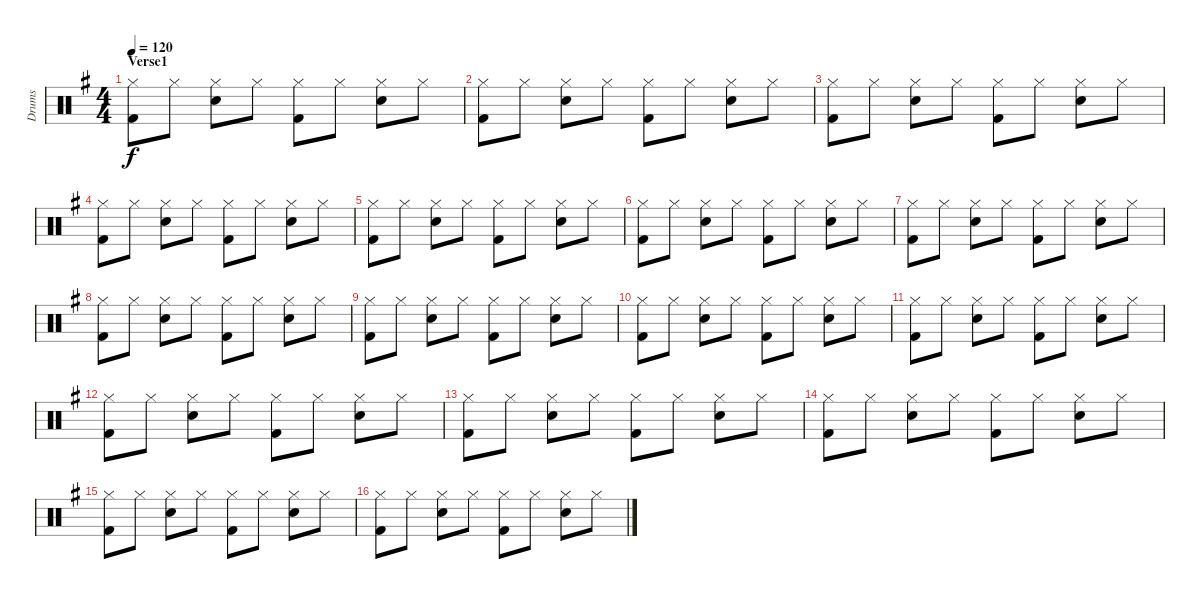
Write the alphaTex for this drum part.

\track ("Drums" "Drums") {instrument percussion}
\staff {score}
\articulation defaults
\ts (4 4)
\section ("" "Verse1")
\tempo 120
\clef neutral
\ks g
("Hi-Hat (closed)" "Kick (hit) 2").8{dy f} "Hi-Hat (closed)".8 ("Hi-Hat (closed)" "Electric Snare (hit)").8 "Hi-Hat (closed)".8 ("Hi-Hat (closed)" "Kick (hit) 2").8 "Hi-Hat (closed)".8 ("Hi-Hat (closed)" "Electric Snare (hit)").8 "Hi-Hat (closed)".8 |
("Hi-Hat (closed)" "Kick (hit) 2").8 "Hi-Hat (closed)".8 ("Hi-Hat (closed)" "Electric Snare (hit)").8 "Hi-Hat (closed)".8 ("Hi-Hat (closed)" "Kick (hit) 2").8 "Hi-Hat (closed)".8 ("Hi-Hat (closed)" "Electric Snare (hit)").8 "Hi-Hat (closed)".8 |
("Hi-Hat (closed)" "Kick (hit) 2").8 "Hi-Hat (closed)".8 ("Hi-Hat (closed)" "Electric Snare (hit)").8 "Hi-Hat (closed)".8 ("Hi-Hat (closed)" "Kick (hit) 2").8 "Hi-Hat (closed)".8 ("Hi-Hat (closed)" "Electric Snare (hit)").8 "Hi-Hat (closed)".8 |
("Hi-Hat (closed)" "Kick (hit) 2").8 "Hi-Hat (closed)".8 ("Hi-Hat (closed)" "Electric Snare (hit)").8 "Hi-Hat (closed)".8 ("Hi-Hat (closed)" "Kick (hit) 2").8 "Hi-Hat (closed)".8 ("Hi-Hat (closed)" "Electric Snare (hit)").8 "Hi-Hat (closed)".8 |
("Hi-Hat (closed)" "Kick (hit) 2").8 "Hi-Hat (closed)".8 ("Hi-Hat (closed)" "Electric Snare (hit)").8 "Hi-Hat (closed)".8 ("Hi-Hat (closed)" "Kick (hit) 2").8 "Hi-Hat (closed)".8 ("Hi-Hat (closed)" "Electric Snare (hit)").8 "Hi-Hat (closed)".8 |
("Hi-Hat (closed)" "Kick (hit) 2").8 "Hi-Hat (closed)".8 ("Hi-Hat (closed)" "Electric Snare (hit)").8 "Hi-Hat (closed)".8 ("Hi-Hat (closed)" "Kick (hit) 2").8 "Hi-Hat (closed)".8 ("Hi-Hat (closed)" "Electric Snare (hit)").8 "Hi-Hat (closed)".8 |
("Hi-Hat (closed)" "Kick (hit) 2").8 "Hi-Hat (closed)".8 ("Hi-Hat (closed)" "Electric Snare (hit)").8 "Hi-Hat (closed)".8 ("Hi-Hat (closed)" "Kick (hit) 2").8 "Hi-Hat (closed)".8 ("Hi-Hat (closed)" "Electric Snare (hit)").8 "Hi-Hat (closed)".8 |
("Hi-Hat (closed)" "Kick (hit) 2").8 "Hi-Hat (closed)".8 ("Hi-Hat (closed)" "Electric Snare (hit)").8 "Hi-Hat (closed)".8 ("Hi-Hat (closed)" "Kick (hit) 2").8 "Hi-Hat (closed)".8 ("Hi-Hat (closed)" "Electric Snare (hit)").8 "Hi-Hat (closed)".8 |
("Hi-Hat (closed)" "Kick (hit) 2").8 "Hi-Hat (closed)".8 ("Hi-Hat (closed)" "Electric Snare (hit)").8 "Hi-Hat (closed)".8 ("Hi-Hat (closed)" "Kick (hit) 2").8 "Hi-Hat (closed)".8 ("Hi-Hat (closed)" "Electric Snare (hit)").8 "Hi-Hat (closed)".8 |
("Hi-Hat (closed)" "Kick (hit) 2").8 "Hi-Hat (closed)".8 ("Hi-Hat (closed)" "Electric Snare (hit)").8 "Hi-Hat (closed)".8 ("Hi-Hat (closed)" "Kick (hit) 2").8 "Hi-Hat (closed)".8 ("Hi-Hat (closed)" "Electric Snare (hit)").8 "Hi-Hat (closed)".8 |
("Hi-Hat (closed)" "Kick (hit) 2").8 "Hi-Hat (closed)".8 ("Hi-Hat (closed)" "Electric Snare (hit)").8 "Hi-Hat (closed)".8 ("Hi-Hat (closed)" "Kick (hit) 2").8 "Hi-Hat (closed)".8 ("Hi-Hat (closed)" "Electric Snare (hit)").8 "Hi-Hat (closed)".8 |
("Hi-Hat (closed)" "Kick (hit) 2").8 "Hi-Hat (closed)".8 ("Hi-Hat (closed)" "Electric Snare (hit)").8 "Hi-Hat (closed)".8 ("Hi-Hat (closed)" "Kick (hit) 2").8 "Hi-Hat (closed)".8 ("Hi-Hat (closed)" "Electric Snare (hit)").8 "Hi-Hat (closed)".8 |
("Hi-Hat (closed)" "Kick (hit) 2").8 "Hi-Hat (closed)".8 ("Hi-Hat (closed)" "Electric Snare (hit)").8 "Hi-Hat (closed)".8 ("Hi-Hat (closed)" "Kick (hit) 2").8 "Hi-Hat (closed)".8 ("Hi-Hat (closed)" "Electric Snare (hit)").8 "Hi-Hat (closed)".8 |
("Hi-Hat (closed)" "Kick (hit) 2").8 "Hi-Hat (closed)".8 ("Hi-Hat (closed)" "Electric Snare (hit)").8 "Hi-Hat (closed)".8 ("Hi-Hat (closed)" "Kick (hit) 2").8 "Hi-Hat (closed)".8 ("Hi-Hat (closed)" "Electric Snare (hit)").8 "Hi-Hat (closed)".8 |
("Hi-Hat (closed)" "Kick (hit) 2").8 "Hi-Hat (closed)".8 ("Hi-Hat (closed)" "Electric Snare (hit)").8 "Hi-Hat (closed)".8 ("Hi-Hat (closed)" "Kick (hit) 2").8 "Hi-Hat (closed)".8 ("Hi-Hat (closed)" "Electric Snare (hit)").8 "Hi-Hat (closed)".8 |
("Hi-Hat (closed)" "Kick (hit) 2").8 "Hi-Hat (closed)".8 ("Hi-Hat (closed)" "Electric Snare (hit)").8 "Hi-Hat (closed)".8 ("Hi-Hat (closed)" "Kick (hit) 2").8 "Hi-Hat (closed)".8 ("Hi-Hat (closed)" "Electric Snare (hit)").8 "Hi-Hat (closed)".8
